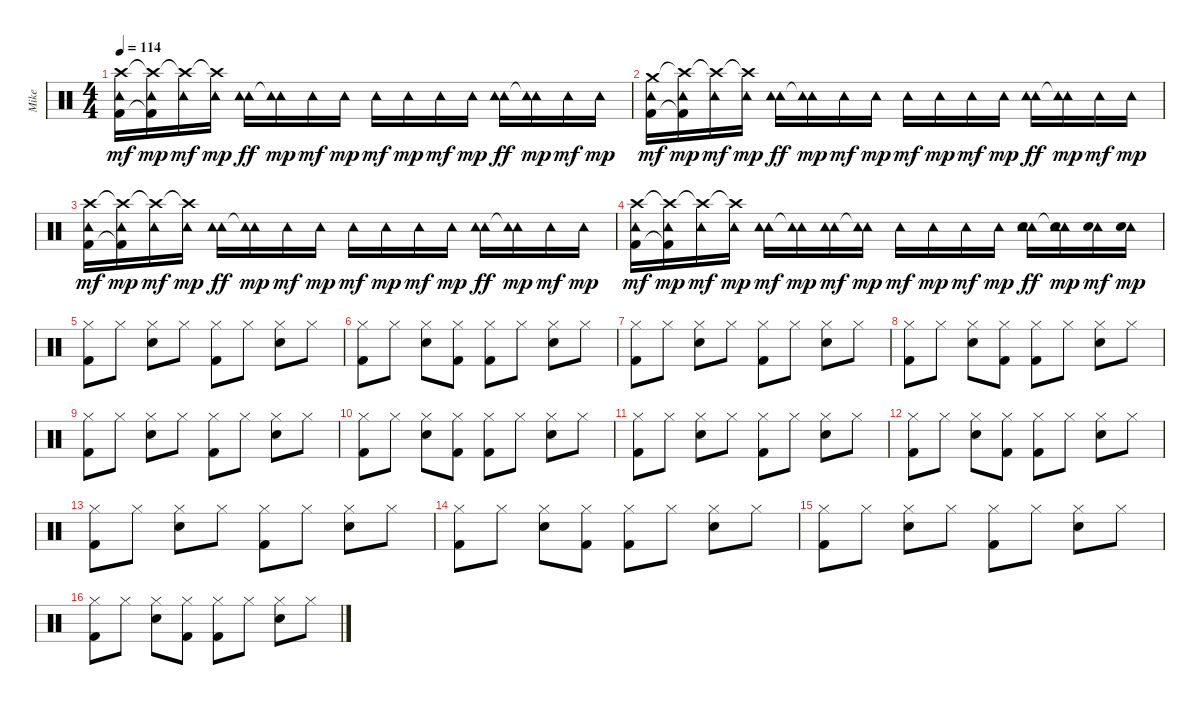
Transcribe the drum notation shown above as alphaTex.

\track ("Mike" "Mike") {instrument percussion}
\staff {score}
\articulation defaults
\ts (4 4)
\tempo 114
\clef neutral
\ks c
("Crash high (hit)" "Tambourine (hit)" "Kick (hit) 2").16{dy mf} ("Crash high (hit)"{t} "Tambourine (hit)" "Kick (hit) 2"{t}).16{dy mp} ("Crash high (hit)"{t} "Tambourine (hit)").16{dy mf} ("Crash high (hit)"{t} "Tambourine (hit)").16{dy mp} ("Tambourine (hit)" "Tambourine (hit)").16{dy ff} ("Tambourine (hit)" "Tambourine (hit)"{t}).16{dy mp} "Tambourine (hit)".16{dy mf} "Tambourine (hit)".16{dy mp} "Tambourine (hit)".16{dy mf} "Tambourine (hit)".16{dy mp} "Tambourine (hit)".16{dy mf} "Tambourine (hit)".16{dy mp} ("Tambourine (hit)" "Tambourine (hit)").16{dy ff} ("Tambourine (hit)" "Tambourine (hit)"{t}).16{dy mp} "Tambourine (hit)".16{dy mf} "Tambourine (hit)".16{dy mp} |
("Crash medium (hit)" "Tambourine (hit)" "Kick (hit) 2").16{dy mf} ("Crash high (hit)"{t} "Tambourine (hit)" "Kick (hit) 2"{t}).16{dy mp} ("Crash high (hit)"{t} "Tambourine (hit)").16{dy mf} ("Crash high (hit)"{t} "Tambourine (hit)").16{dy mp} ("Tambourine (hit)" "Tambourine (hit)").16{dy ff} ("Tambourine (hit)" "Tambourine (hit)"{t}).16{dy mp} "Tambourine (hit)".16{dy mf} "Tambourine (hit)".16{dy mp} "Tambourine (hit)".16{dy mf} "Tambourine (hit)".16{dy mp} "Tambourine (hit)".16{dy mf} "Tambourine (hit)".16{dy mp} ("Tambourine (hit)" "Tambourine (hit)").16{dy ff} ("Tambourine (hit)" "Tambourine (hit)"{t}).16{dy mp} "Tambourine (hit)".16{dy mf} "Tambourine (hit)".16{dy mp} |
("Crash high (hit)" "Tambourine (hit)" "Kick (hit) 2").16{dy mf} ("Crash high (hit)"{t} "Tambourine (hit)" "Kick (hit) 2"{t}).16{dy mp} ("Crash high (hit)"{t} "Tambourine (hit)").16{dy mf} ("Crash high (hit)"{t} "Tambourine (hit)").16{dy mp} ("Tambourine (hit)" "Tambourine (hit)").16{dy ff} ("Tambourine (hit)" "Tambourine (hit)"{t}).16{dy mp} "Tambourine (hit)".16{dy mf} "Tambourine (hit)".16{dy mp} "Tambourine (hit)".16{dy mf} "Tambourine (hit)".16{dy mp} "Tambourine (hit)".16{dy mf} "Tambourine (hit)".16{dy mp} ("Tambourine (hit)" "Tambourine (hit)").16{dy ff} ("Tambourine (hit)" "Tambourine (hit)"{t}).16{dy mp} "Tambourine (hit)".16{dy mf} "Tambourine (hit)".16{dy mp} |
("Crash high (hit)" "Tambourine (hit)" "Kick (hit) 2").16{dy mf} ("Crash high (hit)"{t} "Tambourine (hit)" "Kick (hit) 2"{t}).16{dy mp} ("Crash high (hit)"{t} "Tambourine (hit)").16{dy mf} ("Crash high (hit)"{t} "Tambourine (hit)").16{dy mp} ("Tambourine (hit)" "Tambourine (hit)").16{dy mf} ("Tambourine (hit)" "Tambourine (hit)"{t}).16{dy mp} ("Tambourine (hit)" "Tambourine (hit)").16{dy mf} ("Tambourine (hit)" "Tambourine (hit)"{t}).16{dy mp} "Tambourine (hit)".16{dy mf} "Tambourine (hit)".16{dy mp} "Tambourine (hit)".16{dy mf} "Tambourine (hit)".16{dy mp} ("Tambourine (hit)" "Electric Snare (hit)" "Tambourine (hit)").16{dy ff} ("Tambourine (hit)" "Electric Snare (hit)" "Tambourine (hit)"{t}).16{dy mp} ("Tambourine (hit)" "Electric Snare (hit)").16{dy mf} ("Tambourine (hit)" "Electric Snare (hit)").16{dy mp} |
("Hi-Hat (closed)" "Kick (hit) 2").8 "Hi-Hat (closed)".8 ("Hi-Hat (closed)" "Electric Snare (hit)").8 "Hi-Hat (closed)".8 ("Hi-Hat (closed)" "Kick (hit) 2").8 "Hi-Hat (closed)".8 ("Hi-Hat (closed)" "Electric Snare (hit)").8 "Hi-Hat (closed)".8 |
("Hi-Hat (closed)" "Kick (hit) 2").8 "Hi-Hat (closed)".8 ("Hi-Hat (closed)" "Electric Snare (hit)").8 ("Hi-Hat (closed)" "Kick (hit) 2").8 ("Hi-Hat (closed)" "Kick (hit) 2").8 "Hi-Hat (closed)".8 ("Hi-Hat (closed)" "Electric Snare (hit)").8 "Hi-Hat (closed)".8 |
("Hi-Hat (closed)" "Kick (hit) 2").8 "Hi-Hat (closed)".8 ("Hi-Hat (closed)" "Electric Snare (hit)").8 "Hi-Hat (closed)".8 ("Hi-Hat (closed)" "Kick (hit) 2").8 "Hi-Hat (closed)".8 ("Hi-Hat (closed)" "Electric Snare (hit)").8 "Hi-Hat (closed)".8 |
("Hi-Hat (closed)" "Kick (hit) 2").8 "Hi-Hat (closed)".8 ("Hi-Hat (closed)" "Electric Snare (hit)").8 ("Hi-Hat (closed)" "Kick (hit) 2").8 ("Hi-Hat (closed)" "Kick (hit) 2").8 "Hi-Hat (closed)".8 ("Hi-Hat (closed)" "Electric Snare (hit)").8 "Hi-Hat (closed)".8 |
("Hi-Hat (closed)" "Kick (hit) 2").8 "Hi-Hat (closed)".8 ("Hi-Hat (closed)" "Electric Snare (hit)").8 "Hi-Hat (closed)".8 ("Hi-Hat (closed)" "Kick (hit) 2").8 "Hi-Hat (closed)".8 ("Hi-Hat (closed)" "Electric Snare (hit)").8 "Hi-Hat (closed)".8 |
("Hi-Hat (closed)" "Kick (hit) 2").8 "Hi-Hat (closed)".8 ("Hi-Hat (closed)" "Electric Snare (hit)").8 ("Hi-Hat (closed)" "Kick (hit) 2").8 ("Hi-Hat (closed)" "Kick (hit) 2").8 "Hi-Hat (closed)".8 ("Hi-Hat (closed)" "Electric Snare (hit)").8 "Hi-Hat (closed)".8 |
("Hi-Hat (closed)" "Kick (hit) 2").8 "Hi-Hat (closed)".8 ("Hi-Hat (closed)" "Electric Snare (hit)").8 "Hi-Hat (closed)".8 ("Hi-Hat (closed)" "Kick (hit) 2").8 "Hi-Hat (closed)".8 ("Hi-Hat (closed)" "Electric Snare (hit)").8 "Hi-Hat (closed)".8 |
("Hi-Hat (closed)" "Kick (hit) 2").8 "Hi-Hat (closed)".8 ("Hi-Hat (closed)" "Electric Snare (hit)").8 ("Hi-Hat (closed)" "Kick (hit) 2").8 ("Hi-Hat (closed)" "Kick (hit) 2").8 "Hi-Hat (closed)".8 ("Hi-Hat (closed)" "Electric Snare (hit)").8 "Hi-Hat (closed)".8 |
("Hi-Hat (closed)" "Kick (hit) 2").8 "Hi-Hat (closed)".8 ("Hi-Hat (closed)" "Electric Snare (hit)").8 "Hi-Hat (closed)".8 ("Hi-Hat (closed)" "Kick (hit) 2").8 "Hi-Hat (closed)".8 ("Hi-Hat (closed)" "Electric Snare (hit)").8 "Hi-Hat (closed)".8 |
("Hi-Hat (closed)" "Kick (hit) 2").8 "Hi-Hat (closed)".8 ("Hi-Hat (closed)" "Electric Snare (hit)").8 ("Hi-Hat (closed)" "Kick (hit) 2").8 ("Hi-Hat (closed)" "Kick (hit) 2").8 "Hi-Hat (closed)".8 ("Hi-Hat (closed)" "Electric Snare (hit)").8 "Hi-Hat (closed)".8 |
("Hi-Hat (closed)" "Kick (hit) 2").8 "Hi-Hat (closed)".8 ("Hi-Hat (closed)" "Electric Snare (hit)").8 "Hi-Hat (closed)".8 ("Hi-Hat (closed)" "Kick (hit) 2").8 "Hi-Hat (closed)".8 ("Hi-Hat (closed)" "Electric Snare (hit)").8 "Hi-Hat (closed)".8 |
("Hi-Hat (closed)" "Kick (hit) 2").8 "Hi-Hat (closed)".8 ("Hi-Hat (closed)" "Electric Snare (hit)").8 ("Hi-Hat (closed)" "Kick (hit) 2").8 ("Hi-Hat (closed)" "Kick (hit) 2").8 "Hi-Hat (closed)".8 ("Hi-Hat (closed)" "Electric Snare (hit)").8 "Hi-Hat (closed)".8
